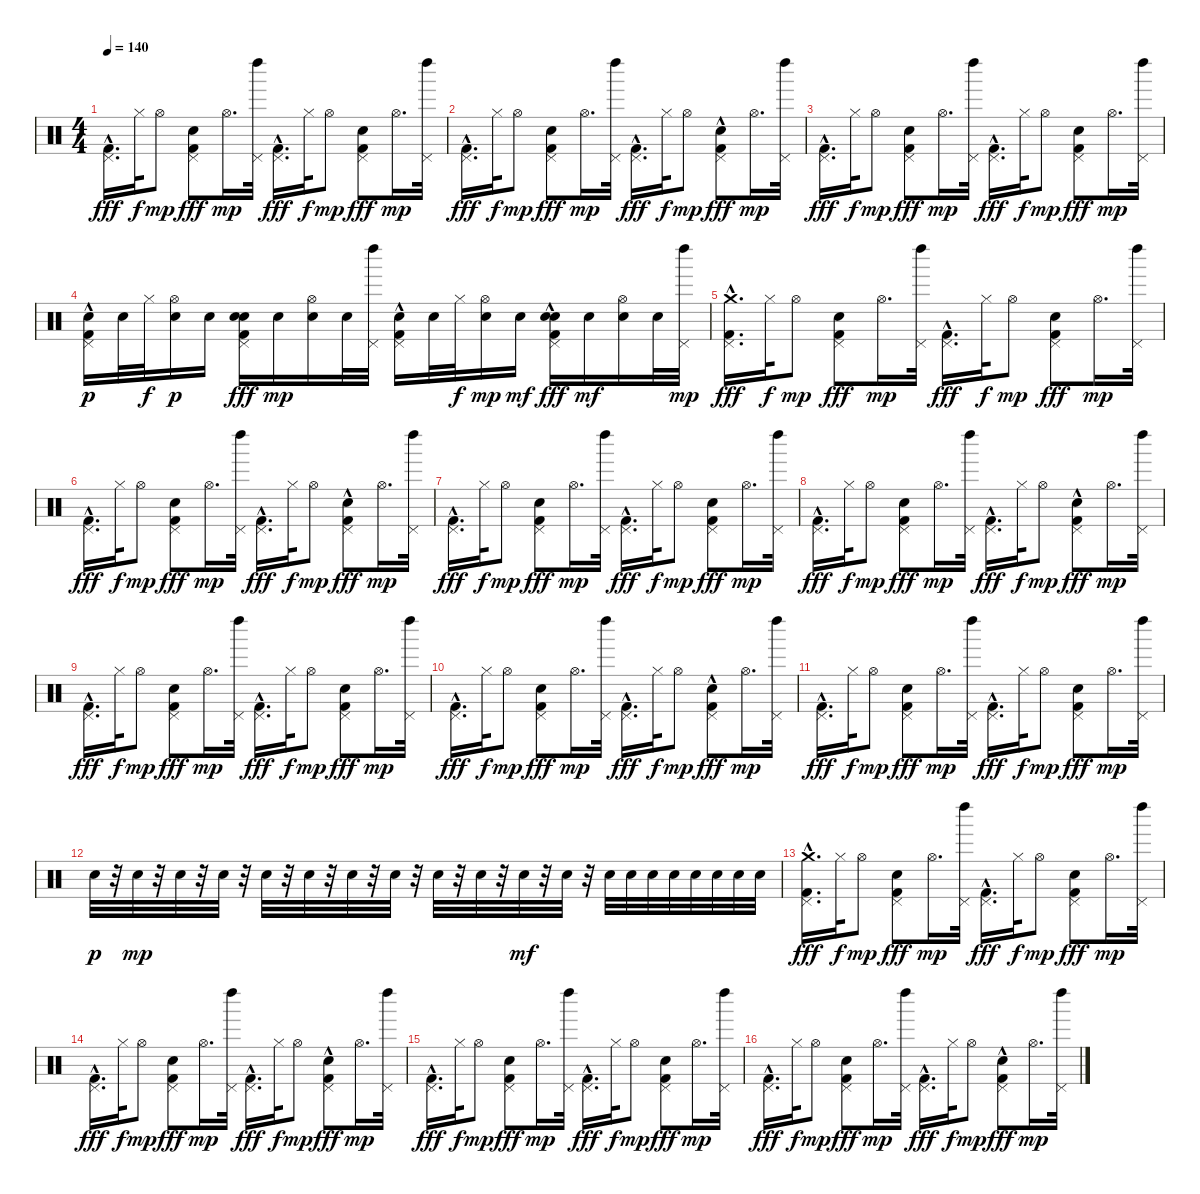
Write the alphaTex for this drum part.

\track "" {instrument percussion}
\staff {score}
\articulation defaults
\ts (4 4)
\tempo 140
\clef neutral
\ks c
("Pedal Hi-Hat (hit)"{hac} "Kick (hit) 2").16{d dy fff} "Hi-Hat (closed)".32{dy f} "Hi-Hat (open)".8{dy mp} ("Hand Clap (hit)" "Kick (hit) 2" "Pedal Hi-Hat (hit)").8{dy fff} "Hi-Hat (open)".16{d dy mp} ("Left Maraca (hit)" "Pedal Hi-Hat (hit)").32 ("Pedal Hi-Hat (hit)"{hac} "Kick (hit) 2").16{d dy fff} "Hi-Hat (closed)".32{dy f} "Hi-Hat (open)".8{dy mp} ("Hand Clap (hit)" "Kick (hit) 2" "Pedal Hi-Hat (hit)").8{dy fff} "Hi-Hat (open)".16{d dy mp} ("Pedal Hi-Hat (hit)" "Left Maraca (hit)").32 |
("Kick (hit) 2" "Pedal Hi-Hat (hit)"{hac}).16{d dy fff} "Hi-Hat (closed)".32{dy f} "Hi-Hat (open)".8{dy mp} ("Hand Clap (hit)" "Kick (hit) 2" "Pedal Hi-Hat (hit)").8{dy fff} "Hi-Hat (open)".16{d dy mp} ("Left Maraca (hit)" "Pedal Hi-Hat (hit)").32 ("Pedal Hi-Hat (hit)"{hac} "Kick (hit) 2").16{d dy fff} "Hi-Hat (closed)".32{dy f} "Hi-Hat (open)".8{dy mp} ("Pedal Hi-Hat (hit)" "Kick (hit) 2" "Hand Clap (hit)"{hac}).8{dy fff} "Hi-Hat (open)".16{d dy mp} ("Left Maraca (hit)" "Pedal Hi-Hat (hit)").32 |
("Kick (hit) 2" "Pedal Hi-Hat (hit)"{hac}).16{d dy fff} "Hi-Hat (closed)".32{dy f} "Hi-Hat (open)".8{dy mp} ("Pedal Hi-Hat (hit)" "Kick (hit) 2" "Hand Clap (hit)").8{dy fff} "Hi-Hat (open)".16{d dy mp} ("Left Maraca (hit)" "Pedal Hi-Hat (hit)").32 ("Pedal Hi-Hat (hit)"{hac} "Kick (hit) 2").16{d dy fff} "Hi-Hat (closed)".32{dy f} "Hi-Hat (open)".8{dy mp} ("Hand Clap (hit)" "Pedal Hi-Hat (hit)" "Kick (hit) 2").8{dy fff} "Hi-Hat (open)".16{d dy mp} ("Pedal Hi-Hat (hit)" "Left Maraca (hit)").32 |
("Kick (hit) 2" "Pedal Hi-Hat (hit)"{hac} "Snare (hit) 2").16{dy p} "Snare (hit) 2".32 "Hi-Hat (closed)".32{dy f} ("Hi-Hat (open)" "Snare (hit) 2").16{dy p} "Snare (hit) 2".16 ("Snare (hit) 2" "Pedal Hi-Hat (hit)" "Hand Clap (hit)" "Kick (hit) 2").16{dy fff} "Snare (hit) 2".16{dy mp} ("Snare (hit) 2" "Hi-Hat (open)").16 "Snare (hit) 2".32 ("Pedal Hi-Hat (hit)" "Left Maraca (hit)").32 ("Kick (hit) 2" "Snare (hit) 2" "Pedal Hi-Hat (hit)"{hac}).16 "Snare (hit) 2".32 "Hi-Hat (closed)".32{dy f} ("Snare (hit) 2" "Hi-Hat (open)").16{dy mp} "Snare (hit) 2".16{dy mf} ("Snare (hit) 2" "Pedal Hi-Hat (hit)" "Hand Clap (hit)"{hac} "Kick (hit) 2").16{dy fff} "Snare (hit) 2".16{dy mf} ("Hi-Hat (open)" "Snare (hit) 2").16 "Snare (hit) 2".32 ("Left Maraca (hit)" "Pedal Hi-Hat (hit)").32{dy mp} |
("Kick (hit) 2" "Crash medium (hit)" "Pedal Hi-Hat (hit)"{hac}).16{d dy fff} "Hi-Hat (closed)".32{dy f} "Hi-Hat (open)".8{dy mp} ("Hand Clap (hit)" "Kick (hit) 2" "Pedal Hi-Hat (hit)").8{dy fff} "Hi-Hat (open)".16{d dy mp} ("Left Maraca (hit)" "Pedal Hi-Hat (hit)").32 ("Pedal Hi-Hat (hit)"{hac} "Kick (hit) 2").16{d dy fff} "Hi-Hat (closed)".32{dy f} "Hi-Hat (open)".8{dy mp} ("Pedal Hi-Hat (hit)" "Kick (hit) 2" "Hand Clap (hit)").8{dy fff} "Hi-Hat (open)".16{d dy mp} ("Left Maraca (hit)" "Pedal Hi-Hat (hit)").32 |
("Kick (hit) 2" "Pedal Hi-Hat (hit)"{hac}).16{d dy fff} "Hi-Hat (closed)".32{dy f} "Hi-Hat (open)".8{dy mp} ("Pedal Hi-Hat (hit)" "Kick (hit) 2" "Hand Clap (hit)").8{dy fff} "Hi-Hat (open)".16{d dy mp} ("Left Maraca (hit)" "Pedal Hi-Hat (hit)").32 ("Pedal Hi-Hat (hit)"{hac} "Kick (hit) 2").16{d dy fff} "Hi-Hat (closed)".32{dy f} "Hi-Hat (open)".8{dy mp} ("Hand Clap (hit)"{hac} "Pedal Hi-Hat (hit)" "Kick (hit) 2").8{dy fff} "Hi-Hat (open)".16{d dy mp} ("Pedal Hi-Hat (hit)" "Left Maraca (hit)").32 |
("Kick (hit) 2" "Pedal Hi-Hat (hit)"{hac}).16{d dy fff} "Hi-Hat (closed)".32{dy f} "Hi-Hat (open)".8{dy mp} ("Hand Clap (hit)" "Pedal Hi-Hat (hit)" "Kick (hit) 2").8{dy fff} "Hi-Hat (open)".16{d dy mp} ("Left Maraca (hit)" "Pedal Hi-Hat (hit)").32 ("Kick (hit) 2" "Pedal Hi-Hat (hit)"{hac}).16{d dy fff} "Hi-Hat (closed)".32{dy f} "Hi-Hat (open)".8{dy mp} ("Pedal Hi-Hat (hit)" "Kick (hit) 2" "Hand Clap (hit)").8{dy fff} "Hi-Hat (open)".16{d dy mp} ("Pedal Hi-Hat (hit)" "Left Maraca (hit)").32 |
("Kick (hit) 2" "Pedal Hi-Hat (hit)"{hac}).16{d dy fff} "Hi-Hat (closed)".32{dy f} "Hi-Hat (open)".8{dy mp} ("Pedal Hi-Hat (hit)" "Hand Clap (hit)" "Kick (hit) 2").8{dy fff} "Hi-Hat (open)".16{d dy mp} ("Left Maraca (hit)" "Pedal Hi-Hat (hit)").32 ("Kick (hit) 2" "Pedal Hi-Hat (hit)"{hac}).16{d dy fff} "Hi-Hat (closed)".32{dy f} "Hi-Hat (open)".8{dy mp} ("Hand Clap (hit)"{hac} "Pedal Hi-Hat (hit)" "Kick (hit) 2").8{dy fff} "Hi-Hat (open)".16{d dy mp} ("Pedal Hi-Hat (hit)" "Left Maraca (hit)").32 |
("Kick (hit) 2" "Pedal Hi-Hat (hit)"{hac}).16{d dy fff} "Hi-Hat (closed)".32{dy f} "Hi-Hat (open)".8{dy mp} ("Pedal Hi-Hat (hit)" "Hand Clap (hit)" "Kick (hit) 2").8{dy fff} "Hi-Hat (open)".16{d dy mp} ("Pedal Hi-Hat (hit)" "Left Maraca (hit)").32 ("Pedal Hi-Hat (hit)"{hac} "Kick (hit) 2").16{d dy fff} "Hi-Hat (closed)".32{dy f} "Hi-Hat (open)".8{dy mp} ("Kick (hit) 2" "Pedal Hi-Hat (hit)" "Hand Clap (hit)").8{dy fff} "Hi-Hat (open)".16{d dy mp} ("Pedal Hi-Hat (hit)" "Left Maraca (hit)").32 |
("Pedal Hi-Hat (hit)"{hac} "Kick (hit) 2").16{d dy fff} "Hi-Hat (closed)".32{dy f} "Hi-Hat (open)".8{dy mp} ("Pedal Hi-Hat (hit)" "Hand Clap (hit)" "Kick (hit) 2").8{dy fff} "Hi-Hat (open)".16{d dy mp} ("Pedal Hi-Hat (hit)" "Left Maraca (hit)").32 ("Kick (hit) 2" "Pedal Hi-Hat (hit)"{hac}).16{d dy fff} "Hi-Hat (closed)".32{dy f} "Hi-Hat (open)".8{dy mp} ("Kick (hit) 2" "Pedal Hi-Hat (hit)" "Hand Clap (hit)"{hac}).8{dy fff} "Hi-Hat (open)".16{d dy mp} ("Pedal Hi-Hat (hit)" "Left Maraca (hit)").32 |
("Kick (hit) 2" "Pedal Hi-Hat (hit)"{hac}).16{d dy fff} "Hi-Hat (closed)".32{dy f} "Hi-Hat (open)".8{dy mp} ("Pedal Hi-Hat (hit)" "Hand Clap (hit)" "Kick (hit) 2").8{dy fff} "Hi-Hat (open)".16{d dy mp} ("Left Maraca (hit)" "Pedal Hi-Hat (hit)").32 ("Pedal Hi-Hat (hit)"{hac} "Kick (hit) 2").16{d dy fff} "Hi-Hat (closed)".32{dy f} "Hi-Hat (open)".8{dy mp} ("Kick (hit) 2" "Pedal Hi-Hat (hit)" "Hand Clap (hit)").8{dy fff} "Hi-Hat (open)".16{d dy mp} ("Left Maraca (hit)" "Pedal Hi-Hat (hit)").32 |
"Snare (hit) 2".32{dy p} r.32 "Snare (hit) 2".32{dy mp} r.32 "Snare (hit) 2".32 r.32 "Snare (hit) 2".32 r.32 "Snare (hit) 2".32 r.32 "Snare (hit) 2".32 r.32 "Snare (hit) 2".32 r.32 "Snare (hit) 2".32 r.32 "Snare (hit) 2".32 r.32 "Snare (hit) 2".32 r.32 "Snare (hit) 2".32{dy mf} r.32 "Snare (hit) 2".32 r.32 "Snare (hit) 2".32 "Snare (hit) 2".32 "Snare (hit) 2".32 "Snare (hit) 2".32 "Snare (hit) 2".32 "Snare (hit) 2".32 "Snare (hit) 2".32 "Snare (hit) 2".32 |
("Pedal Hi-Hat (hit)"{hac} "Crash medium (hit)" "Kick (hit) 2").16{d dy fff} "Hi-Hat (closed)".32{dy f} "Hi-Hat (open)".8{dy mp} ("Pedal Hi-Hat (hit)" "Hand Clap (hit)" "Kick (hit) 2").8{dy fff} "Hi-Hat (open)".16{d dy mp} ("Pedal Hi-Hat (hit)" "Left Maraca (hit)").32 ("Kick (hit) 2" "Pedal Hi-Hat (hit)"{hac}).16{d dy fff} "Hi-Hat (closed)".32{dy f} "Hi-Hat (open)".8{dy mp} ("Pedal Hi-Hat (hit)" "Hand Clap (hit)" "Kick (hit) 2").8{dy fff} "Hi-Hat (open)".16{d dy mp} ("Pedal Hi-Hat (hit)" "Left Maraca (hit)").32 |
("Pedal Hi-Hat (hit)"{hac} "Kick (hit) 2").16{d dy fff} "Hi-Hat (closed)".32{dy f} "Hi-Hat (open)".8{dy mp} ("Pedal Hi-Hat (hit)" "Hand Clap (hit)" "Kick (hit) 2").8{dy fff} "Hi-Hat (open)".16{d dy mp} ("Left Maraca (hit)" "Pedal Hi-Hat (hit)").32 ("Pedal Hi-Hat (hit)"{hac} "Kick (hit) 2").16{d dy fff} "Hi-Hat (closed)".32{dy f} "Hi-Hat (open)".8{dy mp} ("Pedal Hi-Hat (hit)" "Kick (hit) 2" "Hand Clap (hit)"{hac}).8{dy fff} "Hi-Hat (open)".16{d dy mp} ("Left Maraca (hit)" "Pedal Hi-Hat (hit)").32 |
("Pedal Hi-Hat (hit)"{hac} "Kick (hit) 2").16{d dy fff} "Hi-Hat (closed)".32{dy f} "Hi-Hat (open)".8{dy mp} ("Pedal Hi-Hat (hit)" "Kick (hit) 2" "Hand Clap (hit)").8{dy fff} "Hi-Hat (open)".16{d dy mp} ("Pedal Hi-Hat (hit)" "Left Maraca (hit)").32 ("Pedal Hi-Hat (hit)"{hac} "Kick (hit) 2").16{d dy fff} "Hi-Hat (closed)".32{dy f} "Hi-Hat (open)".8{dy mp} ("Kick (hit) 2" "Hand Clap (hit)" "Pedal Hi-Hat (hit)").8{dy fff} "Hi-Hat (open)".16{d dy mp} ("Left Maraca (hit)" "Pedal Hi-Hat (hit)").32 |
("Pedal Hi-Hat (hit)"{hac} "Kick (hit) 2").16{d dy fff} "Hi-Hat (closed)".32{dy f} "Hi-Hat (open)".8{dy mp} ("Hand Clap (hit)" "Kick (hit) 2" "Pedal Hi-Hat (hit)").8{dy fff} "Hi-Hat (open)".16{d dy mp} ("Left Maraca (hit)" "Pedal Hi-Hat (hit)").32 ("Pedal Hi-Hat (hit)"{hac} "Kick (hit) 2").16{d dy fff} "Hi-Hat (closed)".32{dy f} "Hi-Hat (open)".8{dy mp} ("Kick (hit) 2" "Hand Clap (hit)"{hac} "Pedal Hi-Hat (hit)").8{dy fff} "Hi-Hat (open)".16{d dy mp} ("Left Maraca (hit)" "Pedal Hi-Hat (hit)").32
